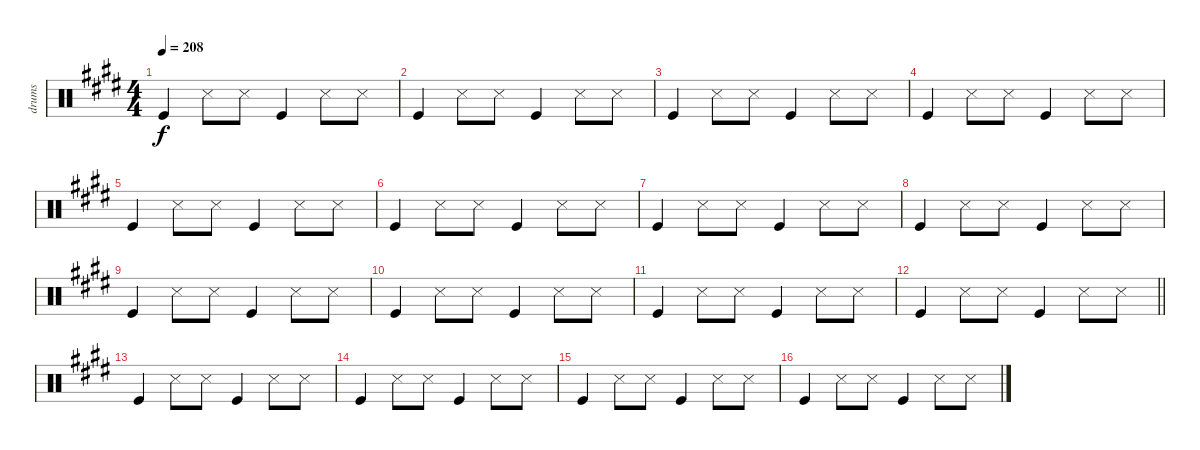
\track ("drums" "drums") {instrument percussion}
\staff {score}
\articulation defaults
\ts (4 4)
\tempo 208
\clef neutral
\ks e "Kick (hit)".4{dy f} "Snare (side stick) 3".8 "Snare (side stick) 3".8 "Kick (hit)".4 "Snare (side stick) 3".8 "Snare (side stick) 3".8
|
"Kick (hit)".4 "Snare (side stick) 3".8 "Snare (side stick) 3".8 "Kick (hit)".4 "Snare (side stick) 3".8 "Snare (side stick) 3".8 |
"Kick (hit)".4 "Snare (side stick) 3".8 "Snare (side stick) 3".8 "Kick (hit)".4 "Snare (side stick) 3".8 "Snare (side stick) 3".8 |
"Kick (hit)".4 "Snare (side stick) 3".8 "Snare (side stick) 3".8 "Kick (hit)".4 "Snare (side stick) 3".8 "Snare (side stick) 3".8 |
"Kick (hit)".4 "Snare (side stick) 3".8 "Snare (side stick) 3".8 "Kick (hit)".4 "Snare (side stick) 3".8 "Snare (side stick) 3".8 |
"Kick (hit)".4 "Snare (side stick) 3".8 "Snare (side stick) 3".8 "Kick (hit)".4 "Snare (side stick) 3".8 "Snare (side stick) 3".8 |
"Kick (hit)".4 "Snare (side stick) 3".8 "Snare (side stick) 3".8 "Kick (hit)".4 "Snare (side stick) 3".8 "Snare (side stick) 3".8 |
"Kick (hit)".4 "Snare (side stick) 3".8 "Snare (side stick) 3".8 "Kick (hit)".4 "Snare (side stick) 3".8 "Snare (side stick) 3".8 |
"Kick (hit)".4 "Snare (side stick) 3".8 "Snare (side stick) 3".8 "Kick (hit)".4 "Snare (side stick) 3".8 "Snare (side stick) 3".8 |
"Kick (hit)".4 "Snare (side stick) 3".8 "Snare (side stick) 3".8 "Kick (hit)".4 "Snare (side stick) 3".8 "Snare (side stick) 3".8 |
"Kick (hit)".4 "Snare (side stick) 3".8 "Snare (side stick) 3".8 "Kick (hit)".4 "Snare (side stick) 3".8 "Snare (side stick) 3".8 |
\barLineRight lightlight "Kick (hit)".4 "Snare (side stick) 3".8 "Snare (side stick) 3".8 "Kick (hit)".4 "Snare (side stick) 3".8 "Snare (side stick) 3".8
|
"Kick (hit)".4 "Snare (side stick) 3".8 "Snare (side stick) 3".8 "Kick (hit)".4 "Snare (side stick) 3".8 "Snare (side stick) 3".8 |
"Kick (hit)".4 "Snare (side stick) 3".8 "Snare (side stick) 3".8 "Kick (hit)".4 "Snare (side stick) 3".8 "Snare (side stick) 3".8 |
"Kick (hit)".4 "Snare (side stick) 3".8 "Snare (side stick) 3".8 "Kick (hit)".4 "Snare (side stick) 3".8 "Snare (side stick) 3".8 |
"Kick (hit)".4 "Snare (side stick) 3".8 "Snare (side stick) 3".8 "Kick (hit)".4 "Snare (side stick) 3".8 "Snare (side stick) 3".8
